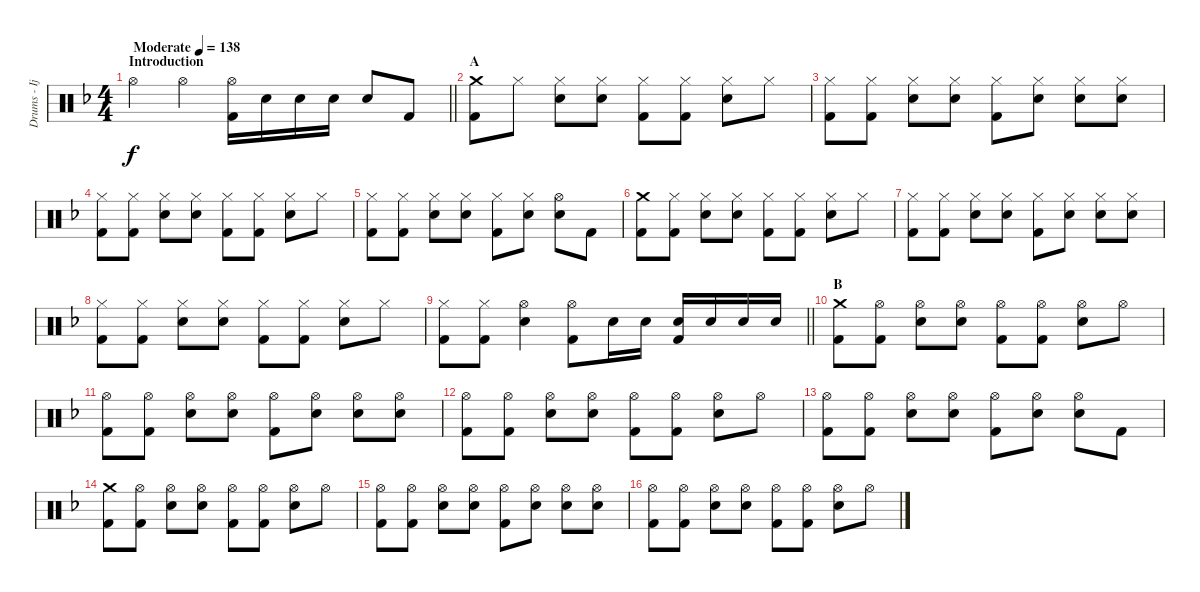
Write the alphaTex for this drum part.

\track ("Drums - Ijichi" "Drums - Ij") {instrument percussion}
\staff {score}
\articulation defaults
\ts (4 4)
\section ("" "Introduction")
\tempo (138 "Moderate")
\clef neutral
\barLineRight lightlight
\ks f "Hi-Hat (open)".4{dy f} "Hi-Hat (open)".4
("Hi-Hat (open)" "Kick (hit) 2").16 "Electric Snare (hit)".16 "Electric Snare (hit)".16 "Electric Snare (hit)".16 "Electric Snare (hit)".8 "Kick (hit) 2".8 |
\section ("" "A")
("Crash medium (hit)" "Kick (hit) 2").8 "Hi-Hat (closed)".8 ("Hi-Hat (closed)" "Electric Snare (hit)").8 ("Hi-Hat (closed)" "Electric Snare (hit)").8 ("Hi-Hat (closed)" "Kick (hit) 2").8 ("Hi-Hat (closed)" "Kick (hit) 2").8 ("Hi-Hat (closed)" "Electric Snare (hit)").8 "Hi-Hat (closed)".8 |
("Hi-Hat (closed)" "Kick (hit) 2").8 ("Hi-Hat (closed)" "Kick (hit) 2").8 ("Hi-Hat (closed)" "Electric Snare (hit)").8 ("Hi-Hat (closed)" "Electric Snare (hit)").8 ("Hi-Hat (closed)" "Kick (hit) 2").8 ("Hi-Hat (closed)" "Electric Snare (hit)").8 ("Hi-Hat (closed)" "Electric Snare (hit)").8 ("Hi-Hat (closed)" "Electric Snare (hit)").8 |
("Hi-Hat (closed)" "Kick (hit) 2").8 ("Hi-Hat (closed)" "Kick (hit) 2").8 ("Hi-Hat (closed)" "Electric Snare (hit)").8 ("Hi-Hat (closed)" "Electric Snare (hit)").8 ("Hi-Hat (closed)" "Kick (hit) 2").8 ("Hi-Hat (closed)" "Kick (hit) 2").8 ("Hi-Hat (closed)" "Electric Snare (hit)").8 "Hi-Hat (closed)".8 |
("Hi-Hat (closed)" "Kick (hit) 2").8 ("Hi-Hat (closed)" "Kick (hit) 2").8 ("Hi-Hat (closed)" "Electric Snare (hit)").8 ("Hi-Hat (closed)" "Electric Snare (hit)").8 ("Hi-Hat (closed)" "Kick (hit) 2").8 ("Hi-Hat (closed)" "Electric Snare (hit)").8 ("Hi-Hat (open)" "Electric Snare (hit)").8 "Kick (hit) 2".8 |
("Crash medium (hit)" "Kick (hit) 2").8 ("Hi-Hat (closed)" "Kick (hit) 2").8 ("Hi-Hat (closed)" "Electric Snare (hit)").8 ("Hi-Hat (closed)" "Electric Snare (hit)").8 ("Hi-Hat (closed)" "Kick (hit) 2").8 ("Hi-Hat (closed)" "Kick (hit) 2").8 ("Hi-Hat (closed)" "Electric Snare (hit)").8 "Hi-Hat (closed)".8 |
("Hi-Hat (closed)" "Kick (hit) 2").8 ("Hi-Hat (closed)" "Kick (hit) 2").8 ("Hi-Hat (closed)" "Electric Snare (hit)").8 ("Hi-Hat (closed)" "Electric Snare (hit)").8 ("Hi-Hat (closed)" "Kick (hit) 2").8 ("Hi-Hat (closed)" "Electric Snare (hit)").8 ("Hi-Hat (closed)" "Electric Snare (hit)").8 ("Hi-Hat (closed)" "Electric Snare (hit)").8 |
("Hi-Hat (closed)" "Kick (hit) 2").8 ("Hi-Hat (closed)" "Kick (hit) 2").8 ("Hi-Hat (closed)" "Electric Snare (hit)").8 ("Hi-Hat (closed)" "Electric Snare (hit)").8 ("Hi-Hat (closed)" "Kick (hit) 2").8 ("Hi-Hat (closed)" "Kick (hit) 2").8 ("Hi-Hat (closed)" "Electric Snare (hit)").8 "Hi-Hat (closed)".8 |
\barLineRight lightlight
("Hi-Hat (closed)" "Kick (hit) 2").8 ("Hi-Hat (closed)" "Kick (hit) 2").8 ("Hi-Hat (open)" "Electric Snare (hit)").4 ("Hi-Hat (open)" "Kick (hit) 2").8 "Electric Snare (hit)".16 "Electric Snare (hit)".16 ("Electric Snare (hit)" "Kick (hit) 2").16 "Electric Snare (hit)".16 "Electric Snare (hit)".16 "Electric Snare (hit)".16 |
\section ("" "B")
("Crash medium (hit)" "Kick (hit) 2").8 ("Hi-Hat (open)" "Kick (hit) 2").8 ("Hi-Hat (open)" "Electric Snare (hit)").8 ("Hi-Hat (open)" "Electric Snare (hit)").8 ("Hi-Hat (open)" "Kick (hit) 2").8 ("Hi-Hat (open)" "Kick (hit) 2").8 ("Hi-Hat (open)" "Electric Snare (hit)").8 "Hi-Hat (open)".8 |
("Hi-Hat (open)" "Kick (hit) 2").8 ("Hi-Hat (open)" "Kick (hit) 2").8 ("Hi-Hat (open)" "Electric Snare (hit)").8 ("Hi-Hat (open)" "Electric Snare (hit)").8 ("Hi-Hat (open)" "Kick (hit) 2").8 ("Hi-Hat (open)" "Electric Snare (hit)").8 ("Hi-Hat (open)" "Electric Snare (hit)").8 ("Hi-Hat (open)" "Electric Snare (hit)").8 |
("Hi-Hat (open)" "Kick (hit) 2").8 ("Hi-Hat (open)" "Kick (hit) 2").8 ("Hi-Hat (open)" "Electric Snare (hit)").8 ("Hi-Hat (open)" "Electric Snare (hit)").8 ("Hi-Hat (open)" "Kick (hit) 2").8 ("Hi-Hat (open)" "Kick (hit) 2").8 ("Hi-Hat (open)" "Electric Snare (hit)").8 "Hi-Hat (open)".8 |
("Hi-Hat (open)" "Kick (hit) 2").8 ("Hi-Hat (open)" "Kick (hit) 2").8 ("Hi-Hat (open)" "Electric Snare (hit)").8 ("Hi-Hat (open)" "Electric Snare (hit)").8 ("Hi-Hat (open)" "Kick (hit) 2").8 ("Hi-Hat (open)" "Electric Snare (hit)").8 ("Hi-Hat (open)" "Electric Snare (hit)").8 "Kick (hit) 2".8 |
("Crash medium (hit)" "Kick (hit) 2").8 ("Hi-Hat (open)" "Kick (hit) 2").8 ("Hi-Hat (open)" "Electric Snare (hit)").8 ("Hi-Hat (open)" "Electric Snare (hit)").8 ("Hi-Hat (open)" "Kick (hit) 2").8 ("Hi-Hat (open)" "Kick (hit) 2").8 ("Hi-Hat (open)" "Electric Snare (hit)").8 "Hi-Hat (open)".8 |
("Hi-Hat (open)" "Kick (hit) 2").8 ("Hi-Hat (open)" "Kick (hit) 2").8 ("Hi-Hat (open)" "Electric Snare (hit)").8 ("Hi-Hat (open)" "Electric Snare (hit)").8 ("Hi-Hat (open)" "Kick (hit) 2").8 ("Hi-Hat (open)" "Electric Snare (hit)").8 ("Hi-Hat (open)" "Electric Snare (hit)").8 ("Hi-Hat (open)" "Electric Snare (hit)").8 |
("Hi-Hat (open)" "Kick (hit) 2").8 ("Hi-Hat (open)" "Kick (hit) 2").8 ("Hi-Hat (open)" "Electric Snare (hit)").8 ("Hi-Hat (open)" "Electric Snare (hit)").8 ("Hi-Hat (open)" "Kick (hit) 2").8 ("Hi-Hat (open)" "Kick (hit) 2").8 ("Hi-Hat (open)" "Electric Snare (hit)").8 "Hi-Hat (open)".8
